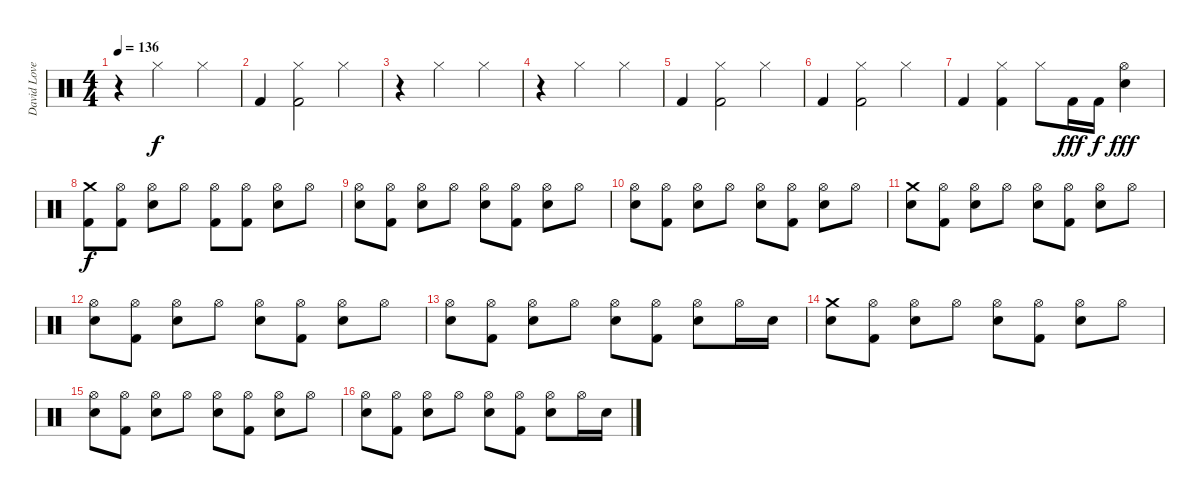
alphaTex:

\track ("David Lovering (Drums)" "David Love") {instrument percussion}
\staff {score}
\articulation defaults
\ts (4 4)
\tempo 136
\clef neutral
\ks c
r.4{dy f} "Hi-Hat (closed)".2 "Hi-Hat (closed)".4 |
"Kick (hit) 2".4 ("Hi-Hat (closed)" "Kick (hit) 2").2 "Hi-Hat (closed)".4 |
r.4 "Hi-Hat (closed)".2 "Hi-Hat (closed)".4 |
r.4 "Hi-Hat (closed)".2 "Hi-Hat (closed)".4 |
"Kick (hit) 2".4 ("Hi-Hat (closed)" "Kick (hit) 2").2 "Hi-Hat (closed)".4 |
"Kick (hit) 2".4 ("Hi-Hat (closed)" "Kick (hit) 2").2 "Hi-Hat (closed)".4 |
"Kick (hit) 2".4 ("Hi-Hat (closed)" "Kick (hit) 2").4 "Hi-Hat (closed)".8 "Kick (hit) 2".16{dy fff} "Kick (hit) 2".16{dy f} ("Hi-Hat (open)" "Electric Snare (hit)").4{dy fff} |
("Crash medium (hit)" "Kick (hit) 2").8{dy f} ("Hi-Hat (open)" "Kick (hit) 2").8 ("Hi-Hat (open)" "Electric Snare (hit)").8 "Hi-Hat (open)".8 ("Hi-Hat (open)" "Kick (hit) 2").8 ("Hi-Hat (open)" "Kick (hit) 2").8 ("Hi-Hat (open)" "Electric Snare (hit)").8 "Hi-Hat (open)".8 |
("Hi-Hat (open)" "Electric Snare (hit)").8 ("Hi-Hat (open)" "Kick (hit) 2").8 ("Hi-Hat (open)" "Electric Snare (hit)").8 "Hi-Hat (open)".8 ("Hi-Hat (open)" "Electric Snare (hit)").8 ("Hi-Hat (open)" "Kick (hit) 2").8 ("Hi-Hat (open)" "Electric Snare (hit)").8 "Hi-Hat (open)".8 |
("Hi-Hat (open)" "Electric Snare (hit)").8 ("Hi-Hat (open)" "Kick (hit) 2").8 ("Hi-Hat (open)" "Electric Snare (hit)").8 "Hi-Hat (open)".8 ("Hi-Hat (open)" "Electric Snare (hit)").8 ("Hi-Hat (open)" "Kick (hit) 2").8 ("Hi-Hat (open)" "Electric Snare (hit)").8 "Hi-Hat (open)".8 |
("Crash medium (hit)" "Electric Snare (hit)").8 ("Hi-Hat (open)" "Kick (hit) 2").8 ("Hi-Hat (open)" "Electric Snare (hit)").8 "Hi-Hat (open)".8 ("Hi-Hat (open)" "Electric Snare (hit)").8 ("Hi-Hat (open)" "Kick (hit) 2").8 ("Hi-Hat (open)" "Electric Snare (hit)").8 "Hi-Hat (open)".8 |
("Hi-Hat (open)" "Electric Snare (hit)").8 ("Hi-Hat (open)" "Kick (hit) 2").8 ("Hi-Hat (open)" "Electric Snare (hit)").8 "Hi-Hat (open)".8 ("Hi-Hat (open)" "Electric Snare (hit)").8 ("Hi-Hat (open)" "Kick (hit) 2").8 ("Hi-Hat (open)" "Electric Snare (hit)").8 "Hi-Hat (open)".8 |
("Hi-Hat (open)" "Electric Snare (hit)").8 ("Hi-Hat (open)" "Kick (hit) 2").8 ("Hi-Hat (open)" "Electric Snare (hit)").8 "Hi-Hat (open)".8 ("Hi-Hat (open)" "Electric Snare (hit)").8 ("Hi-Hat (open)" "Kick (hit) 2").8 ("Hi-Hat (open)" "Electric Snare (hit)").8 "Hi-Hat (open)".16 "Electric Snare (hit)".16 |
("Crash medium (hit)" "Electric Snare (hit)").8 ("Hi-Hat (open)" "Kick (hit) 2").8 ("Hi-Hat (open)" "Electric Snare (hit)").8 "Hi-Hat (open)".8 ("Hi-Hat (open)" "Electric Snare (hit)").8 ("Hi-Hat (open)" "Kick (hit) 2").8 ("Hi-Hat (open)" "Electric Snare (hit)").8 "Hi-Hat (open)".8 |
("Hi-Hat (open)" "Electric Snare (hit)").8 ("Hi-Hat (open)" "Kick (hit) 2").8 ("Hi-Hat (open)" "Electric Snare (hit)").8 "Hi-Hat (open)".8 ("Hi-Hat (open)" "Electric Snare (hit)").8 ("Hi-Hat (open)" "Kick (hit) 2").8 ("Hi-Hat (open)" "Electric Snare (hit)").8 "Hi-Hat (open)".8 |
("Hi-Hat (open)" "Electric Snare (hit)").8 ("Hi-Hat (open)" "Kick (hit) 2").8 ("Hi-Hat (open)" "Electric Snare (hit)").8 "Hi-Hat (open)".8 ("Hi-Hat (open)" "Electric Snare (hit)").8 ("Hi-Hat (open)" "Kick (hit) 2").8 ("Hi-Hat (open)" "Electric Snare (hit)").8 "Hi-Hat (open)".16 "Electric Snare (hit)".16
